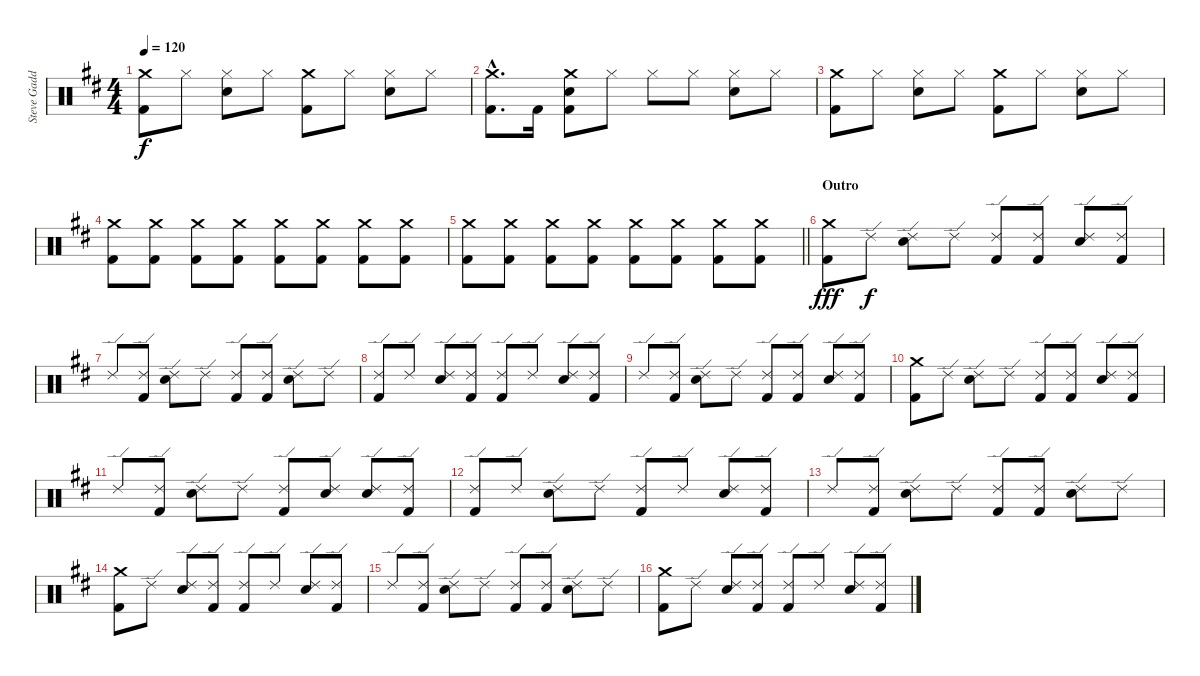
\track ("Steve Gadd Drums" "Steve Gadd") {instrument percussion}
\staff {score}
\articulation defaults
\ts (4 4)
\tempo 120
\clef neutral
\ks d
("Crash medium (hit)" "Kick (hit) 2").8{dy f} "Hi-Hat (closed)".8 ("Hi-Hat (closed)" "Snare (hit) 2").8 "Hi-Hat (closed)".8 ("Crash medium (hit)" "Kick (hit) 2").8 "Hi-Hat (closed)".8 ("Hi-Hat (closed)" "Snare (hit) 2").8 "Hi-Hat (closed)".8 |
("Crash medium (hit)"{hac} "Kick (hit) 2"{hac}).8{d} "Kick (hit) 2".16 ("Crash medium (hit)" "Snare (hit) 2" "Kick (hit) 2").8 "Hi-Hat (closed)".8 "Hi-Hat (closed)".8 "Hi-Hat (closed)".8 ("Hi-Hat (closed)" "Snare (hit) 2").8 "Hi-Hat (closed)".8 |
("Crash medium (hit)" "Kick (hit) 2").8 "Hi-Hat (closed)".8 ("Hi-Hat (closed)" "Snare (hit) 2").8 "Hi-Hat (closed)".8 ("Crash medium (hit)" "Kick (hit) 2").8 "Hi-Hat (closed)".8 ("Hi-Hat (closed)" "Snare (hit) 2").8 "Hi-Hat (closed)".8 |
("Crash medium (hit)" "Kick (hit) 2").8 ("Crash medium (hit)" "Kick (hit) 2").8 ("Crash medium (hit)" "Kick (hit) 2").8 ("Crash medium (hit)" "Kick (hit) 2").8 ("Crash medium (hit)" "Kick (hit) 2").8 ("Crash medium (hit)" "Kick (hit) 2").8 ("Crash medium (hit)" "Kick (hit) 2").8 ("Crash medium (hit)" "Kick (hit) 2").8 |
\barLineRight lightlight
("Crash medium (hit)" "Kick (hit) 2").8 ("Crash medium (hit)" "Kick (hit) 2").8 ("Crash medium (hit)" "Kick (hit) 2").8 ("Crash medium (hit)" "Kick (hit) 2").8 ("Crash medium (hit)" "Kick (hit) 2").8 ("Crash medium (hit)" "Kick (hit) 2").8 ("Crash medium (hit)" "Kick (hit) 2").8 ("Crash medium (hit)" "Kick (hit) 2").8 |
\section ("" "Outro")
("Crash medium (hit)" "Kick (hit) 2").8{dy fff} "Ride (edge) 2".8{dy f} ("Ride (edge) 2" "Snare (hit) 2").8 "Ride (edge) 2".8 ("Ride (edge) 2" "Kick (hit) 2").8 ("Ride (edge) 2" "Kick (hit) 2").8 ("Ride (edge) 2" "Snare (hit) 2").8 ("Ride (edge) 2" "Kick (hit) 2").8 |
"Ride (edge) 2".8 ("Ride (edge) 2" "Kick (hit) 2").8 ("Ride (edge) 2" "Snare (hit) 2").8 "Ride (edge) 2".8 ("Ride (edge) 2" "Kick (hit) 2").8 ("Ride (edge) 2" "Kick (hit) 2").8 ("Ride (edge) 2" "Snare (hit) 2").8 "Ride (edge) 2".8 |
("Ride (edge) 2" "Kick (hit) 2").8 "Ride (edge) 2".8 ("Ride (edge) 2" "Snare (hit) 2").8 ("Ride (edge) 2" "Kick (hit) 2").8 ("Ride (edge) 2" "Kick (hit) 2").8 "Ride (edge) 2".8 ("Ride (edge) 2" "Snare (hit) 2").8 ("Ride (edge) 2" "Kick (hit) 2").8 |
"Ride (edge) 2".8 ("Ride (edge) 2" "Kick (hit) 2").8 ("Ride (edge) 2" "Snare (hit) 2").8 "Ride (edge) 2".8 ("Ride (edge) 2" "Kick (hit) 2").8 ("Ride (edge) 2" "Kick (hit) 2").8 ("Ride (edge) 2" "Snare (hit) 2").8 ("Ride (edge) 2" "Kick (hit) 2").8 |
("Crash medium (hit)" "Kick (hit) 2").8 "Ride (edge) 2".8 ("Ride (edge) 2" "Snare (hit) 2").8 "Ride (edge) 2".8 ("Ride (edge) 2" "Kick (hit) 2").8 ("Ride (edge) 2" "Kick (hit) 2").8 ("Ride (edge) 2" "Snare (hit) 2").8 ("Ride (edge) 2" "Kick (hit) 2").8 |
"Ride (edge) 2".8 ("Ride (edge) 2" "Kick (hit) 2").8 ("Ride (edge) 2" "Snare (hit) 2").8 "Ride (edge) 2".8 ("Ride (edge) 2" "Kick (hit) 2").8 ("Ride (edge) 2" "Snare (hit) 2").8 ("Ride (edge) 2" "Snare (hit) 2").8 ("Ride (edge) 2" "Kick (hit) 2").8 |
("Ride (edge) 2" "Kick (hit) 2").8 "Ride (edge) 2".8 ("Ride (edge) 2" "Snare (hit) 2").8 "Ride (edge) 2".8 ("Ride (edge) 2" "Kick (hit) 2").8 "Ride (edge) 2".8 ("Ride (edge) 2" "Snare (hit) 2").8 ("Ride (edge) 2" "Kick (hit) 2").8 |
"Ride (edge) 2".8 ("Ride (edge) 2" "Kick (hit) 2").8 ("Ride (edge) 2" "Snare (hit) 2").8 "Ride (edge) 2".8 ("Ride (edge) 2" "Kick (hit) 2").8 ("Ride (edge) 2" "Kick (hit) 2").8 ("Ride (edge) 2" "Snare (hit) 2").8 "Ride (edge) 2".8 |
("Crash medium (hit)" "Kick (hit) 2").8 "Ride (edge) 2".8 ("Ride (edge) 2" "Snare (hit) 2").8 ("Ride (edge) 2" "Kick (hit) 2").8 ("Ride (edge) 2" "Kick (hit) 2").8 "Ride (edge) 2".8 ("Ride (edge) 2" "Snare (hit) 2").8 ("Ride (edge) 2" "Kick (hit) 2").8 |
"Ride (edge) 2".8 ("Ride (edge) 2" "Kick (hit) 2").8 ("Ride (edge) 2" "Snare (hit) 2").8 "Ride (edge) 2".8 ("Ride (edge) 2" "Kick (hit) 2").8 ("Ride (edge) 2" "Kick (hit) 2").8 ("Ride (edge) 2" "Snare (hit) 2").8 "Ride (edge) 2".8 |
("Crash medium (hit)" "Kick (hit) 2").8 "Ride (edge) 2".8 ("Ride (edge) 2" "Snare (hit) 2").8 ("Ride (edge) 2" "Kick (hit) 2").8 ("Ride (edge) 2" "Kick (hit) 2").8 "Ride (edge) 2".8 ("Ride (edge) 2" "Snare (hit) 2").8 ("Ride (edge) 2" "Kick (hit) 2").8
